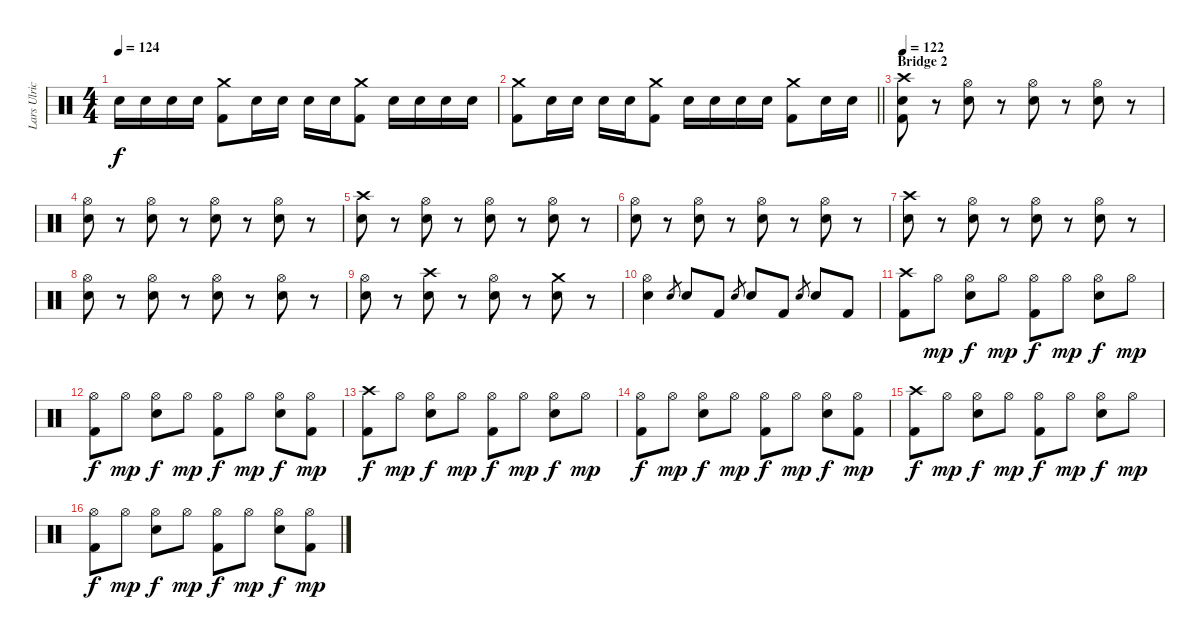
\track ("Lars Ulrich" "Lars Ulric") {instrument percussion}
\staff {score}
\articulation defaults
\ts (4 4)
\tempo 124
\clef neutral
\ks c "Snare (hit) 2".16{dy f} "Snare (hit) 2".16 "Snare (hit) 2".16 "Snare (hit) 2".16
("Crash medium (hit)" "Kick (hit) 2").8 "Snare (hit) 2".16 "Snare (hit) 2".16 "Snare (hit) 2".16 "Snare (hit) 2".16 ("Crash medium (hit)" "Kick (hit) 2").8 "Snare (hit) 2".16 "Snare (hit) 2".16 "Snare (hit) 2".16 "Snare (hit) 2".16 |
\barLineRight lightlight
("Crash medium (hit)" "Kick (hit) 2").8 "Snare (hit) 2".16 "Snare (hit) 2".16 "Snare (hit) 2".16 "Snare (hit) 2".16 ("Crash medium (hit)" "Kick (hit) 2").8 "Snare (hit) 2".16 "Snare (hit) 2".16 "Snare (hit) 2".16 "Snare (hit) 2".16 ("Crash medium (hit)" "Kick (hit) 2").8 "Snare (hit) 2".16 "Snare (hit) 2".16 |
\section ("" "Bridge 2")
\tempo 122
("Crash high (hit)" "Snare (hit) 2" "Kick (hit) 2").8 r.8 ("Hi-Hat (open)" "Snare (hit) 2").8 r.8 ("Hi-Hat (open)" "Snare (hit) 2").8 r.8 ("Hi-Hat (open)" "Snare (hit) 2").8 r.8 |
("Hi-Hat (open)" "Snare (hit) 2").8 r.8 ("Hi-Hat (open)" "Snare (hit) 2").8 r.8 ("Hi-Hat (open)" "Snare (hit) 2").8 r.8 ("Hi-Hat (open)" "Snare (hit) 2").8 r.8 |
("Crash high (hit)" "Snare (hit) 2").8 r.8 ("Hi-Hat (open)" "Snare (hit) 2").8 r.8 ("Hi-Hat (open)" "Snare (hit) 2").8 r.8 ("Hi-Hat (open)" "Snare (hit) 2").8 r.8 |
("Hi-Hat (open)" "Snare (hit) 2").8 r.8 ("Hi-Hat (open)" "Snare (hit) 2").8 r.8 ("Hi-Hat (open)" "Snare (hit) 2").8 r.8 ("Hi-Hat (open)" "Snare (hit) 2").8 r.8 |
("Crash high (hit)" "Snare (hit) 2").8 r.8 ("Hi-Hat (open)" "Snare (hit) 2").8 r.8 ("Hi-Hat (open)" "Snare (hit) 2").8 r.8 ("Hi-Hat (open)" "Snare (hit) 2").8 r.8 |
("Hi-Hat (open)" "Snare (hit) 2").8 r.8 ("Hi-Hat (open)" "Snare (hit) 2").8 r.8 ("Hi-Hat (open)" "Snare (hit) 2").8 r.8 ("Hi-Hat (open)" "Snare (hit) 2").8 r.8 |
("Hi-Hat (open)" "Snare (hit) 2").8 r.8 ("Crash high (hit)" "Snare (hit) 2").8 r.8 ("Hi-Hat (open)" "Snare (hit) 2").8 r.8 ("Crash medium (hit)" "Snare (hit) 2").8 r.8 |
("Hi-Hat (open)" "Snare (hit) 2").4 "Snare (hit) 2".8{gr} "Snare (hit) 2".8 "Kick (hit) 2".8 "Snare (hit) 2".8{gr} "Snare (hit) 2".8 "Kick (hit) 2".8 "Snare (hit) 2".8{gr} "Snare (hit) 2".8 "Kick (hit) 2".8 |
("Crash high (hit)" "Kick (hit) 2").8 "Hi-Hat (open)".8{dy mp} ("Hi-Hat (open)" "Snare (hit) 2").8{dy f} "Hi-Hat (open)".8{dy mp} ("Hi-Hat (open)" "Kick (hit) 2").8{dy f} "Hi-Hat (open)".8{dy mp} ("Hi-Hat (open)" "Snare (hit) 2").8{dy f} "Hi-Hat (open)".8{dy mp} |
("Hi-Hat (open)" "Kick (hit) 2").8{dy f} "Hi-Hat (open)".8{dy mp} ("Hi-Hat (open)" "Snare (hit) 2").8{dy f} "Hi-Hat (open)".8{dy mp} ("Hi-Hat (open)" "Kick (hit) 2").8{dy f} "Hi-Hat (open)".8{dy mp} ("Hi-Hat (open)" "Snare (hit) 2").8{dy f} ("Hi-Hat (open)" "Kick (hit) 2").8{dy mp} |
("Crash high (hit)" "Kick (hit) 2").8{dy f} "Hi-Hat (open)".8{dy mp} ("Hi-Hat (open)" "Snare (hit) 2").8{dy f} "Hi-Hat (open)".8{dy mp} ("Hi-Hat (open)" "Kick (hit) 2").8{dy f} "Hi-Hat (open)".8{dy mp} ("Hi-Hat (open)" "Snare (hit) 2").8{dy f} "Hi-Hat (open)".8{dy mp} |
("Hi-Hat (open)" "Kick (hit) 2").8{dy f} "Hi-Hat (open)".8{dy mp} ("Hi-Hat (open)" "Snare (hit) 2").8{dy f} "Hi-Hat (open)".8{dy mp} ("Hi-Hat (open)" "Kick (hit) 2").8{dy f} "Hi-Hat (open)".8{dy mp} ("Hi-Hat (open)" "Snare (hit) 2").8{dy f} ("Hi-Hat (open)" "Kick (hit) 2").8{dy mp} |
("Crash high (hit)" "Kick (hit) 2").8{dy f} "Hi-Hat (open)".8{dy mp} ("Hi-Hat (open)" "Snare (hit) 2").8{dy f} "Hi-Hat (open)".8{dy mp} ("Hi-Hat (open)" "Kick (hit) 2").8{dy f} "Hi-Hat (open)".8{dy mp} ("Hi-Hat (open)" "Snare (hit) 2").8{dy f} "Hi-Hat (open)".8{dy mp} |
("Hi-Hat (open)" "Kick (hit) 2").8{dy f} "Hi-Hat (open)".8{dy mp} ("Hi-Hat (open)" "Snare (hit) 2").8{dy f} "Hi-Hat (open)".8{dy mp} ("Hi-Hat (open)" "Kick (hit) 2").8{dy f} "Hi-Hat (open)".8{dy mp} ("Hi-Hat (open)" "Snare (hit) 2").8{dy f} ("Hi-Hat (open)" "Kick (hit) 2").8{dy mp}
